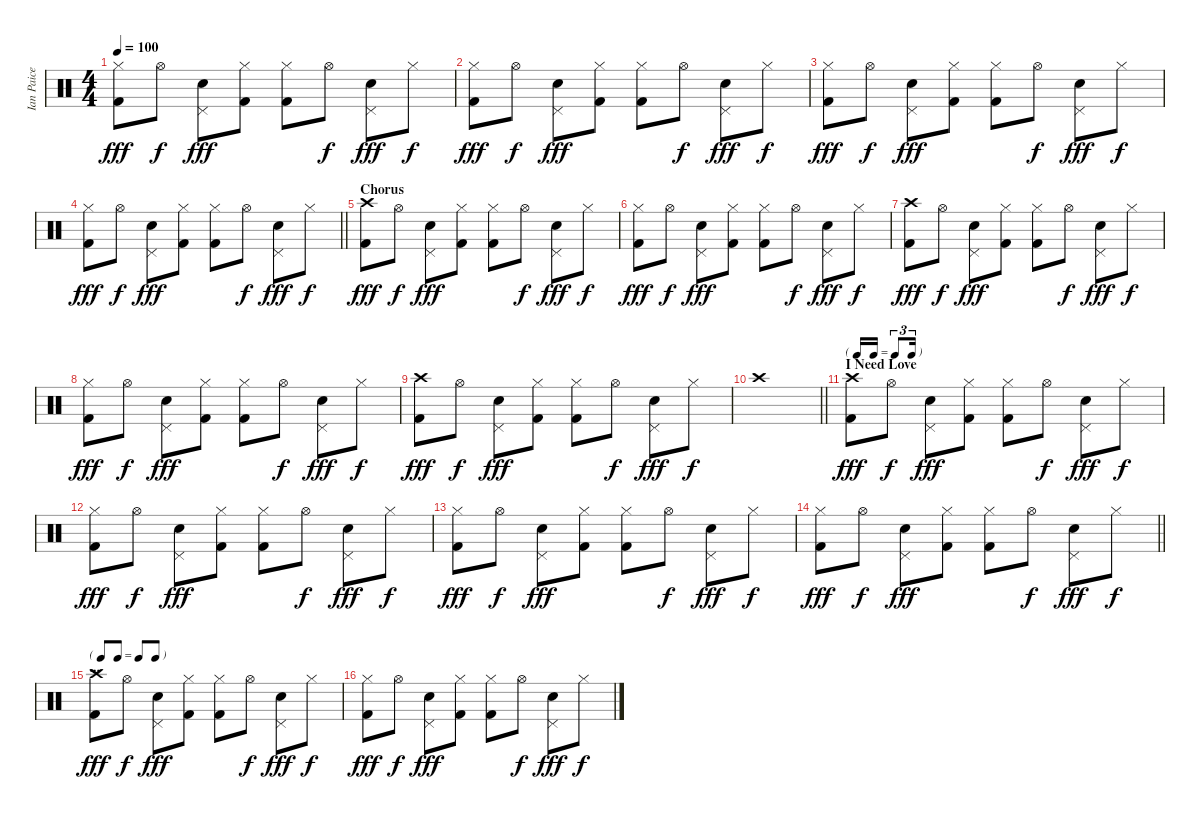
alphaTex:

\track ("Ian Paice" "Ian Paice") {instrument percussion}
\staff {score}
\articulation defaults
\ts (4 4)
\tempo 100
\clef neutral
\ks c
("Hi-Hat (closed)" "Kick (hit) 2").8{dy fff} "Hi-Hat (open)".8{dy f} ("Pedal Hi-Hat (hit)" "Snare (hit) 2").8{dy fff} ("Hi-Hat (closed)" "Kick (hit) 2").8 ("Hi-Hat (closed)" "Kick (hit) 2").8 "Hi-Hat (open)".8{dy f} ("Pedal Hi-Hat (hit)" "Snare (hit) 2").8{dy fff} "Hi-Hat (closed)".8{dy f} |
("Hi-Hat (closed)" "Kick (hit) 2").8{dy fff} "Hi-Hat (open)".8{dy f} ("Pedal Hi-Hat (hit)" "Snare (hit) 2").8{dy fff} ("Hi-Hat (closed)" "Kick (hit) 2").8 ("Hi-Hat (closed)" "Kick (hit) 2").8 "Hi-Hat (open)".8{dy f} ("Pedal Hi-Hat (hit)" "Snare (hit) 2").8{dy fff} "Hi-Hat (closed)".8{dy f} |
("Hi-Hat (closed)" "Kick (hit) 2").8{dy fff} "Hi-Hat (open)".8{dy f} ("Pedal Hi-Hat (hit)" "Snare (hit) 2").8{dy fff} ("Hi-Hat (closed)" "Kick (hit) 2").8 ("Hi-Hat (closed)" "Kick (hit) 2").8 "Hi-Hat (open)".8{dy f} ("Pedal Hi-Hat (hit)" "Snare (hit) 2").8{dy fff} "Hi-Hat (closed)".8{dy f} |
\barLineRight lightlight
("Hi-Hat (closed)" "Kick (hit) 2").8{dy fff} "Hi-Hat (open)".8{dy f} ("Pedal Hi-Hat (hit)" "Snare (hit) 2").8{dy fff} ("Hi-Hat (closed)" "Kick (hit) 2").8 ("Hi-Hat (closed)" "Kick (hit) 2").8 "Hi-Hat (open)".8{dy f} ("Pedal Hi-Hat (hit)" "Snare (hit) 2").8{dy fff} "Hi-Hat (closed)".8{dy f} |
\section ("" "Chorus")
("Crash high (hit)" "Kick (hit) 2").8{dy fff} "Hi-Hat (open)".8{dy f} ("Pedal Hi-Hat (hit)" "Snare (hit) 2").8{dy fff} ("Hi-Hat (closed)" "Kick (hit) 2").8 ("Hi-Hat (closed)" "Kick (hit) 2").8 "Hi-Hat (open)".8{dy f} ("Pedal Hi-Hat (hit)" "Snare (hit) 2").8{dy fff} "Hi-Hat (closed)".8{dy f} |
("Hi-Hat (closed)" "Kick (hit) 2").8{dy fff} "Hi-Hat (open)".8{dy f} ("Pedal Hi-Hat (hit)" "Snare (hit) 2").8{dy fff} ("Hi-Hat (closed)" "Kick (hit) 2").8 ("Hi-Hat (closed)" "Kick (hit) 2").8 "Hi-Hat (open)".8{dy f} ("Pedal Hi-Hat (hit)" "Snare (hit) 2").8{dy fff} "Hi-Hat (closed)".8{dy f} |
("Crash high (hit)" "Kick (hit) 2").8{dy fff} "Hi-Hat (open)".8{dy f} ("Pedal Hi-Hat (hit)" "Snare (hit) 2").8{dy fff} ("Hi-Hat (closed)" "Kick (hit) 2").8 ("Hi-Hat (closed)" "Kick (hit) 2").8 "Hi-Hat (open)".8{dy f} ("Pedal Hi-Hat (hit)" "Snare (hit) 2").8{dy fff} "Hi-Hat (closed)".8{dy f} |
("Hi-Hat (closed)" "Kick (hit) 2").8{dy fff} "Hi-Hat (open)".8{dy f} ("Pedal Hi-Hat (hit)" "Snare (hit) 2").8{dy fff} ("Hi-Hat (closed)" "Kick (hit) 2").8 ("Hi-Hat (closed)" "Kick (hit) 2").8 "Hi-Hat (open)".8{dy f} ("Pedal Hi-Hat (hit)" "Snare (hit) 2").8{dy fff} "Hi-Hat (closed)".8{dy f} |
("Crash high (hit)" "Kick (hit) 2").8{dy fff} "Hi-Hat (open)".8{dy f} ("Pedal Hi-Hat (hit)" "Snare (hit) 2").8{dy fff} ("Hi-Hat (closed)" "Kick (hit) 2").8 ("Hi-Hat (closed)" "Kick (hit) 2").8 "Hi-Hat (open)".8{dy f} ("Pedal Hi-Hat (hit)" "Snare (hit) 2").8{dy fff} "Hi-Hat (closed)".8{dy f} |
\barLineRight lightlight "Crash high (hit)".1
|
\tf triplet16th
\section ("" "I Need Love")
("Crash high (hit)" "Kick (hit) 2").8{dy fff} "Hi-Hat (open)".8{dy f} ("Pedal Hi-Hat (hit)" "Snare (hit) 2").8{dy fff} ("Hi-Hat (closed)" "Kick (hit) 2").8 ("Hi-Hat (closed)" "Kick (hit) 2").8 "Hi-Hat (open)".8{dy f} ("Pedal Hi-Hat (hit)" "Snare (hit) 2").8{dy fff} "Hi-Hat (closed)".8{dy f} |
("Hi-Hat (closed)" "Kick (hit) 2").8{dy fff} "Hi-Hat (open)".8{dy f} ("Pedal Hi-Hat (hit)" "Snare (hit) 2").8{dy fff} ("Hi-Hat (closed)" "Kick (hit) 2").8 ("Hi-Hat (closed)" "Kick (hit) 2").8 "Hi-Hat (open)".8{dy f} ("Pedal Hi-Hat (hit)" "Snare (hit) 2").8{dy fff} "Hi-Hat (closed)".8{dy f} |
("Hi-Hat (closed)" "Kick (hit) 2").8{dy fff} "Hi-Hat (open)".8{dy f} ("Pedal Hi-Hat (hit)" "Snare (hit) 2").8{dy fff} ("Hi-Hat (closed)" "Kick (hit) 2").8 ("Hi-Hat (closed)" "Kick (hit) 2").8 "Hi-Hat (open)".8{dy f} ("Pedal Hi-Hat (hit)" "Snare (hit) 2").8{dy fff} "Hi-Hat (closed)".8{dy f} |
\barLineRight lightlight
("Hi-Hat (closed)" "Kick (hit) 2").8{dy fff} "Hi-Hat (open)".8{dy f} ("Pedal Hi-Hat (hit)" "Snare (hit) 2").8{dy fff} ("Hi-Hat (closed)" "Kick (hit) 2").8 ("Hi-Hat (closed)" "Kick (hit) 2").8 "Hi-Hat (open)".8{dy f} ("Pedal Hi-Hat (hit)" "Snare (hit) 2").8{dy fff} "Hi-Hat (closed)".8{dy f} |
\tf none
\section ("" "...")
("Crash high (hit)" "Kick (hit) 2").8{dy fff volume 0} "Hi-Hat (open)".8{dy f} ("Pedal Hi-Hat (hit)" "Snare (hit) 2").8{dy fff} ("Hi-Hat (closed)" "Kick (hit) 2").8 ("Hi-Hat (closed)" "Kick (hit) 2").8 "Hi-Hat (open)".8{dy f} ("Pedal Hi-Hat (hit)" "Snare (hit) 2").8{dy fff} "Hi-Hat (closed)".8{dy f} |
("Hi-Hat (closed)" "Kick (hit) 2").8{dy fff} "Hi-Hat (open)".8{dy f} ("Pedal Hi-Hat (hit)" "Snare (hit) 2").8{dy fff} ("Hi-Hat (closed)" "Kick (hit) 2").8 ("Hi-Hat (closed)" "Kick (hit) 2").8 "Hi-Hat (open)".8{dy f} ("Pedal Hi-Hat (hit)" "Snare (hit) 2").8{dy fff} "Hi-Hat (closed)".8{dy f}
